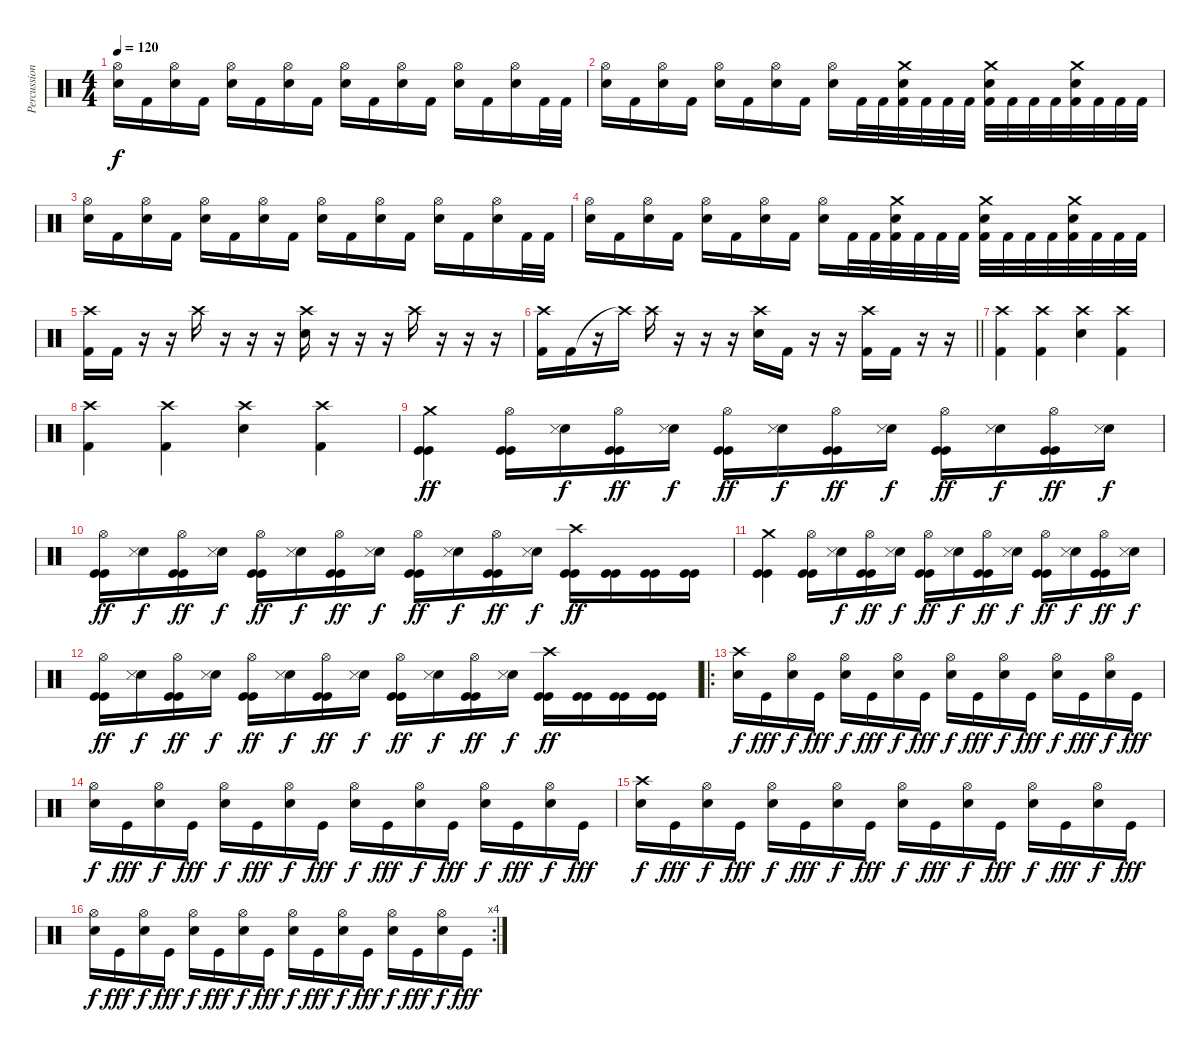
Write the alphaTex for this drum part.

\track ("Percussions" "Percussion") {instrument percussion}
\staff {score}
\articulation defaults
\ts (4 4)
\tempo 120
\clef neutral
\ks c
("Hi-Hat (open)" "Snare (hit) 2").16{dy f} "Kick (hit) 2".16 ("Hi-Hat (open)" "Snare (hit) 2").16 "Kick (hit) 2".16 ("Hi-Hat (open)" "Snare (hit) 2").16 "Kick (hit) 2".16 ("Hi-Hat (open)" "Snare (hit) 2").16 "Kick (hit) 2".16 ("Hi-Hat (open)" "Snare (hit) 2").16 "Kick (hit) 2".16 ("Hi-Hat (open)" "Snare (hit) 2").16 "Kick (hit) 2".16 ("Hi-Hat (open)" "Snare (hit) 2").16 "Kick (hit) 2".16 ("Hi-Hat (open)" "Snare (hit) 2").16 "Kick (hit) 2".32 "Kick (hit) 2".32 |
("Hi-Hat (open)" "Snare (hit) 2").16 "Kick (hit) 2".16 ("Hi-Hat (open)" "Snare (hit) 2").16 "Kick (hit) 2".16 ("Hi-Hat (open)" "Snare (hit) 2").16 "Kick (hit) 2".16 ("Hi-Hat (open)" "Snare (hit) 2").16 "Kick (hit) 2".16 ("Hi-Hat (open)" "Snare (hit) 2").16 "Kick (hit) 2".32 "Kick (hit) 2".32 ("Crash medium (hit)" "Snare (hit) 2" "Kick (hit) 2").32 "Kick (hit) 2".32 "Kick (hit) 2".32 "Kick (hit) 2".32 ("Crash medium (hit)" "Snare (hit) 2" "Kick (hit) 2").32 "Kick (hit) 2".32 "Kick (hit) 2".32 "Kick (hit) 2".32 ("Crash medium (hit)" "Snare (hit) 2" "Kick (hit) 2").32 "Kick (hit) 2".32 "Kick (hit) 2".32 "Kick (hit) 2".32 |
("Hi-Hat (open)" "Snare (hit) 2").16 "Kick (hit) 2".16 ("Hi-Hat (open)" "Snare (hit) 2").16 "Kick (hit) 2".16 ("Hi-Hat (open)" "Snare (hit) 2").16 "Kick (hit) 2".16 ("Hi-Hat (open)" "Snare (hit) 2").16 "Kick (hit) 2".16 ("Hi-Hat (open)" "Snare (hit) 2").16 "Kick (hit) 2".16 ("Hi-Hat (open)" "Snare (hit) 2").16 "Kick (hit) 2".16 ("Hi-Hat (open)" "Snare (hit) 2").16 "Kick (hit) 2".16 ("Hi-Hat (open)" "Snare (hit) 2").16 "Kick (hit) 2".32 "Kick (hit) 2".32 |
("Hi-Hat (open)" "Snare (hit) 2").16 "Kick (hit) 2".16 ("Hi-Hat (open)" "Snare (hit) 2").16 "Kick (hit) 2".16 ("Hi-Hat (open)" "Snare (hit) 2").16 "Kick (hit) 2".16 ("Hi-Hat (open)" "Snare (hit) 2").16 "Kick (hit) 2".16 ("Hi-Hat (open)" "Snare (hit) 2").16 "Kick (hit) 2".32 "Kick (hit) 2".32 ("Crash medium (hit)" "Snare (hit) 2" "Kick (hit) 2").32 "Kick (hit) 2".32 "Kick (hit) 2".32 "Kick (hit) 2".32 ("Crash medium (hit)" "Snare (hit) 2" "Kick (hit) 2").32 "Kick (hit) 2".32 "Kick (hit) 2".32 "Kick (hit) 2".32 ("Crash medium (hit)" "Snare (hit) 2" "Kick (hit) 2").32 "Kick (hit) 2".32 "Kick (hit) 2".32 "Kick (hit) 2".32 |
("Crash high (hit)" "Kick (hit) 2").16 "Kick (hit) 2".16 r.16 r.16 "Crash high (hit)".16 r.16 r.16 r.16 ("Crash high (hit)" "Snare (hit) 2").16 r.16 r.16 r.16 "Crash high (hit)".16 r.16 r.16 r.16 |
\barLineRight lightlight
("Crash high (hit)" "Kick (hit) 2").16 "Kick (hit) 2".16 r.16 "Crash high (hit)"{t}.16 "Crash high (hit)".16 r.16 r.16 r.16 ("Crash high (hit)" "Snare (hit) 2").16 "Kick (hit) 2".16 r.16 r.16 ("Crash high (hit)" "Kick (hit) 2").16 "Kick (hit) 2".16 r.16 r.16 |
("Crash high (hit)" "Kick (hit) 2").4 ("Crash high (hit)" "Kick (hit) 2").4 ("Crash high (hit)" "Electric Snare (hit)").4 ("Crash high (hit)" "Kick (hit) 2").4 |
("Crash high (hit)" "Kick (hit) 2").4 ("Crash high (hit)" "Kick (hit) 2").4 ("Crash high (hit)" "Electric Snare (hit)").4 ("Crash high (hit)" "Kick (hit) 2").4 |
("Crash medium (hit)" "Kick (hit)" "Kick (hit)").4{dy ff} ("Hi-Hat (open)" "Kick (hit)" "Kick (hit)").16 ("Electric Snare (hit)" "Snare (side stick) 3").16{dy f} ("Hi-Hat (open)" "Kick (hit)" "Kick (hit)").16{dy ff} ("Electric Snare (hit)" "Snare (side stick) 3").16{dy f} ("Hi-Hat (open)" "Kick (hit)" "Kick (hit)").16{dy ff} ("Electric Snare (hit)" "Snare (side stick) 3").16{dy f} ("Hi-Hat (open)" "Kick (hit)" "Kick (hit)").16{dy ff} ("Electric Snare (hit)" "Snare (side stick) 3").16{dy f} ("Hi-Hat (open)" "Kick (hit)" "Kick (hit)").16{dy ff} ("Electric Snare (hit)" "Snare (side stick) 3").16{dy f} ("Hi-Hat (open)" "Kick (hit)" "Kick (hit)").16{dy ff} ("Electric Snare (hit)" "Snare (side stick) 3").16{dy f} |
("Hi-Hat (open)" "Kick (hit)" "Kick (hit)").16{dy ff} ("Electric Snare (hit)" "Snare (side stick) 3").16{dy f} ("Hi-Hat (open)" "Kick (hit)" "Kick (hit)").16{dy ff} ("Electric Snare (hit)" "Snare (side stick) 3").16{dy f} ("Hi-Hat (open)" "Kick (hit)" "Kick (hit)").16{dy ff} ("Electric Snare (hit)" "Snare (side stick) 3").16{dy f} ("Hi-Hat (open)" "Kick (hit)" "Kick (hit)").16{dy ff} ("Electric Snare (hit)" "Snare (side stick) 3").16{dy f} ("Hi-Hat (open)" "Kick (hit)" "Kick (hit)").16{dy ff} ("Electric Snare (hit)" "Snare (side stick) 3").16{dy f} ("Hi-Hat (open)" "Kick (hit)" "Kick (hit)").16{dy ff} ("Electric Snare (hit)" "Snare (side stick) 3").16{dy f} ("Crash high (hit)" "Kick (hit)" "Kick (hit)").16{dy ff} ("Kick (hit)" "Kick (hit)").16 ("Kick (hit)" "Kick (hit)").16 ("Kick (hit)" "Kick (hit)").16 |
("Crash medium (hit)" "Kick (hit)" "Kick (hit)").4 ("Hi-Hat (open)" "Kick (hit)" "Kick (hit)").16 ("Electric Snare (hit)" "Snare (side stick) 3").16{dy f} ("Hi-Hat (open)" "Kick (hit)" "Kick (hit)").16{dy ff} ("Electric Snare (hit)" "Snare (side stick) 3").16{dy f} ("Hi-Hat (open)" "Kick (hit)" "Kick (hit)").16{dy ff} ("Electric Snare (hit)" "Snare (side stick) 3").16{dy f} ("Hi-Hat (open)" "Kick (hit)" "Kick (hit)").16{dy ff} ("Electric Snare (hit)" "Snare (side stick) 3").16{dy f} ("Hi-Hat (open)" "Kick (hit)" "Kick (hit)").16{dy ff} ("Electric Snare (hit)" "Snare (side stick) 3").16{dy f} ("Hi-Hat (open)" "Kick (hit)" "Kick (hit)").16{dy ff} ("Electric Snare (hit)" "Snare (side stick) 3").16{dy f} |
("Hi-Hat (open)" "Kick (hit)" "Kick (hit)").16{dy ff} ("Electric Snare (hit)" "Snare (side stick) 3").16{dy f} ("Hi-Hat (open)" "Kick (hit)" "Kick (hit)").16{dy ff} ("Electric Snare (hit)" "Snare (side stick) 3").16{dy f} ("Hi-Hat (open)" "Kick (hit)" "Kick (hit)").16{dy ff} ("Electric Snare (hit)" "Snare (side stick) 3").16{dy f} ("Hi-Hat (open)" "Kick (hit)" "Kick (hit)").16{dy ff} ("Electric Snare (hit)" "Snare (side stick) 3").16{dy f} ("Hi-Hat (open)" "Kick (hit)" "Kick (hit)").16{dy ff} ("Electric Snare (hit)" "Snare (side stick) 3").16{dy f} ("Hi-Hat (open)" "Kick (hit)" "Kick (hit)").16{dy ff} ("Electric Snare (hit)" "Snare (side stick) 3").16{dy f} ("Crash high (hit)" "Kick (hit)" "Kick (hit)").16{dy ff} ("Kick (hit)" "Kick (hit)").16 ("Kick (hit)" "Kick (hit)").16 ("Kick (hit)" "Kick (hit)").16 |
\ro
("Crash high (hit)" "Electric Snare (hit)").16{dy f} "Kick (hit)".16{dy fff} ("Hi-Hat (open)" "Electric Snare (hit)").16{dy f} "Kick (hit)".16{dy fff} ("Hi-Hat (open)" "Electric Snare (hit)").16{dy f} "Kick (hit)".16{dy fff} ("Hi-Hat (open)" "Electric Snare (hit)").16{dy f} "Kick (hit)".16{dy fff} ("Hi-Hat (open)" "Electric Snare (hit)").16{dy f} "Kick (hit)".16{dy fff} ("Hi-Hat (open)" "Electric Snare (hit)").16{dy f} "Kick (hit)".16{dy fff} ("Hi-Hat (open)" "Electric Snare (hit)").16{dy f} "Kick (hit)".16{dy fff} ("Hi-Hat (open)" "Electric Snare (hit)").16{dy f} "Kick (hit)".16{dy fff} |
("Hi-Hat (open)" "Electric Snare (hit)").16{dy f} "Kick (hit)".16{dy fff} ("Hi-Hat (open)" "Electric Snare (hit)").16{dy f} "Kick (hit)".16{dy fff} ("Hi-Hat (open)" "Electric Snare (hit)").16{dy f} "Kick (hit)".16{dy fff} ("Hi-Hat (open)" "Electric Snare (hit)").16{dy f} "Kick (hit)".16{dy fff} ("Hi-Hat (open)" "Electric Snare (hit)").16{dy f} "Kick (hit)".16{dy fff} ("Hi-Hat (open)" "Electric Snare (hit)").16{dy f} "Kick (hit)".16{dy fff} ("Hi-Hat (open)" "Electric Snare (hit)").16{dy f} "Kick (hit)".16{dy fff} ("Hi-Hat (open)" "Electric Snare (hit)").16{dy f} "Kick (hit)".16{dy fff} |
("Crash high (hit)" "Electric Snare (hit)").16{dy f} "Kick (hit)".16{dy fff} ("Hi-Hat (open)" "Electric Snare (hit)").16{dy f} "Kick (hit)".16{dy fff} ("Hi-Hat (open)" "Electric Snare (hit)").16{dy f} "Kick (hit)".16{dy fff} ("Hi-Hat (open)" "Electric Snare (hit)").16{dy f} "Kick (hit)".16{dy fff} ("Hi-Hat (open)" "Electric Snare (hit)").16{dy f} "Kick (hit)".16{dy fff} ("Hi-Hat (open)" "Electric Snare (hit)").16{dy f} "Kick (hit)".16{dy fff} ("Hi-Hat (open)" "Electric Snare (hit)").16{dy f} "Kick (hit)".16{dy fff} ("Hi-Hat (open)" "Electric Snare (hit)").16{dy f} "Kick (hit)".16{dy fff} |
\rc 4
("Hi-Hat (open)" "Electric Snare (hit)").16{dy f} "Kick (hit)".16{dy fff} ("Hi-Hat (open)" "Electric Snare (hit)").16{dy f} "Kick (hit)".16{dy fff} ("Hi-Hat (open)" "Electric Snare (hit)").16{dy f} "Kick (hit)".16{dy fff} ("Hi-Hat (open)" "Electric Snare (hit)").16{dy f} "Kick (hit)".16{dy fff} ("Hi-Hat (open)" "Electric Snare (hit)").16{dy f} "Kick (hit)".16{dy fff} ("Hi-Hat (open)" "Electric Snare (hit)").16{dy f} "Kick (hit)".16{dy fff} ("Hi-Hat (open)" "Electric Snare (hit)").16{dy f} "Kick (hit)".16{dy fff} ("Hi-Hat (open)" "Electric Snare (hit)").16{dy f} "Kick (hit)".16{dy fff}
